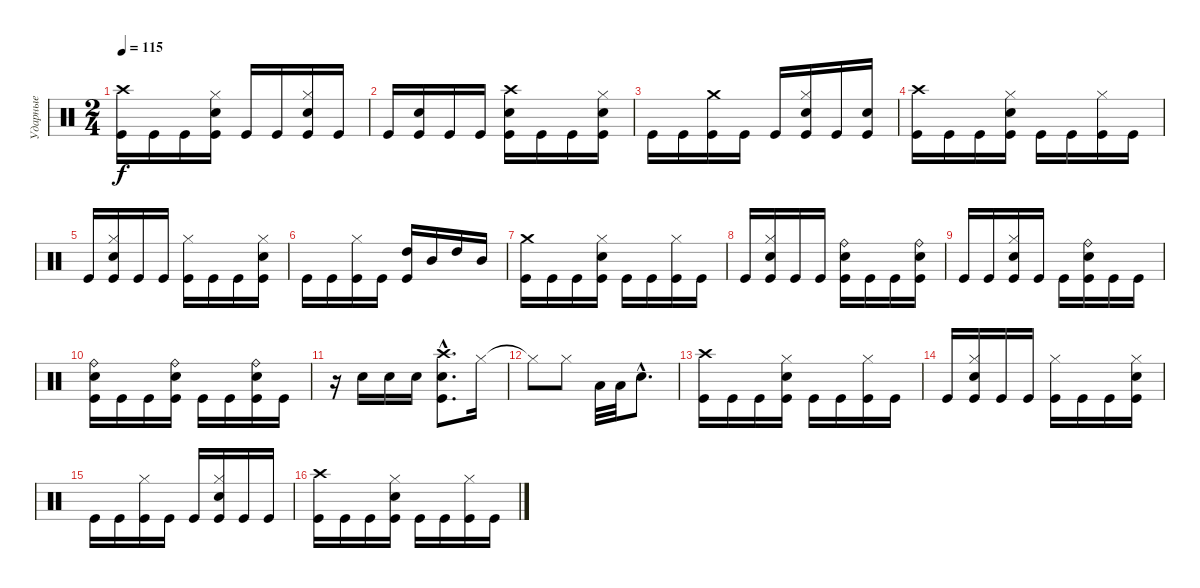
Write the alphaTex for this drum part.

\track ("Ударные" "Ударные") {instrument percussion}
\staff {score}
\articulation defaults
\ts (2 4)
\tempo 115
\clef neutral
\ks c
("Crash high (hit)" "Kick (hit)").16{dy f} "Kick (hit)".16 "Kick (hit)".16 ("Hi-Hat (closed)" "Electric Snare (hit)" "Kick (hit)").16 "Kick (hit)".16 "Kick (hit)".16 ("Hi-Hat (closed)" "Electric Snare (hit)" "Kick (hit)").16 "Kick (hit)".16 |
"Kick (hit)".16 ("Electric Snare (hit)" "Kick (hit)").16 "Kick (hit)".16 "Kick (hit)".16 ("Crash high (hit)" "Electric Snare (hit)" "Kick (hit)").16 "Kick (hit)".16 "Kick (hit)".16 ("Hi-Hat (closed)" "Electric Snare (hit)" "Kick (hit)").16 |
"Kick (hit)".16 "Kick (hit)".16 ("Crash medium (hit)" "Kick (hit)").16 "Kick (hit)".16 "Kick (hit)".16 ("Hi-Hat (closed)" "Electric Snare (hit)" "Kick (hit)").16 "Kick (hit)".16 ("Electric Snare (hit)" "Kick (hit)").16 |
("Crash high (hit)" "Kick (hit)").16 "Kick (hit)".16 "Kick (hit)".16 ("Hi-Hat (closed)" "Electric Snare (hit)" "Kick (hit)").16 "Kick (hit)".16 "Kick (hit)".16 ("Hi-Hat (closed)" "Kick (hit)").16 "Kick (hit)".16 |
"Kick (hit)".16 ("Hi-Hat (closed)" "Electric Snare (hit)" "Kick (hit)").16 "Kick (hit)".16 "Kick (hit)".16 ("Hi-Hat (closed)" "Kick (hit)").16 "Kick (hit)".16 "Kick (hit)".16 ("Hi-Hat (closed)" "Electric Snare (hit)" "Kick (hit)").16 |
"Kick (hit)".16 "Kick (hit)".16 ("Hi-Hat (closed)" "Kick (hit)").16 "Kick (hit)".16 ("High Tom (hit)" "Kick (hit)").16 "Mid Tom (hit)".16 "High Tom (hit)".16 "Mid Tom (hit)".16 |
("Crash medium (hit)" "Kick (hit)").16 "Kick (hit)".16 "Kick (hit)".16 ("Hi-Hat (closed)" "Electric Snare (hit)" "Kick (hit)").16 "Kick (hit)".16 "Kick (hit)".16 ("Hi-Hat (closed)" "Kick (hit)").16 "Kick (hit)".16 |
"Kick (hit)".16 ("Hi-Hat (closed)" "Electric Snare (hit)" "Kick (hit)").16 "Kick (hit)".16 "Kick (hit)".16 ("Ride (bell)" "Electric Snare (hit)" "Kick (hit)").16 "Kick (hit)".16 "Kick (hit)".16 ("Ride (bell)" "Electric Snare (hit)" "Kick (hit)").16 |
"Kick (hit)".16 "Kick (hit)".16 ("Hi-Hat (closed)" "Electric Snare (hit)" "Kick (hit)").16 "Kick (hit)".16 "Kick (hit)".16 ("Ride (bell)" "Electric Snare (hit)" "Kick (hit)").16 "Kick (hit)".16 "Kick (hit)".16 |
("Ride (bell)" "Electric Snare (hit)" "Kick (hit)").16 "Kick (hit)".16 "Kick (hit)".16 ("Ride (bell)" "Electric Snare (hit)" "Kick (hit)").16 "Kick (hit)".16 "Kick (hit)".16 ("Ride (bell)" "Electric Snare (hit)" "Kick (hit)").16 "Kick (hit)".16 |
r.16 "Electric Snare (hit)".16 "Electric Snare (hit)".16 "Electric Snare (hit)".16 ("Crash high (hit)"{hac} "Electric Snare (hit)"{hac} "Kick (hit)"{hac}).8{d} "Hi-Hat (closed)".16 |
"Hi-Hat (closed)"{t}.8 "Hi-Hat (closed)".8 "Low Tom (hit)".32 "Low Tom (hit)".32 "Electric Snare (hit)"{hac}.8{d} |
("Crash high (hit)" "Kick (hit)").16 "Kick (hit)".16 "Kick (hit)".16 ("Hi-Hat (closed)" "Electric Snare (hit)" "Kick (hit)").16 "Kick (hit)".16 "Kick (hit)".16 ("Hi-Hat (closed)" "Kick (hit)").16 "Kick (hit)".16 |
"Kick (hit)".16 ("Hi-Hat (closed)" "Electric Snare (hit)" "Kick (hit)").16 "Kick (hit)".16 "Kick (hit)".16 ("Hi-Hat (closed)" "Kick (hit)").16 "Kick (hit)".16 "Kick (hit)".16 ("Hi-Hat (closed)" "Electric Snare (hit)" "Kick (hit)").16 |
"Kick (hit)".16 "Kick (hit)".16 ("Hi-Hat (closed)" "Kick (hit)").16 "Kick (hit)".16 "Kick (hit)".16 ("Hi-Hat (closed)" "Electric Snare (hit)" "Kick (hit)").16 "Kick (hit)".16 "Kick (hit)".16 |
("Crash high (hit)" "Kick (hit)").16 "Kick (hit)".16 "Kick (hit)".16 ("Hi-Hat (closed)" "Electric Snare (hit)" "Kick (hit)").16 "Kick (hit)".16 "Kick (hit)".16 ("Hi-Hat (closed)" "Kick (hit)").16 "Kick (hit)".16
